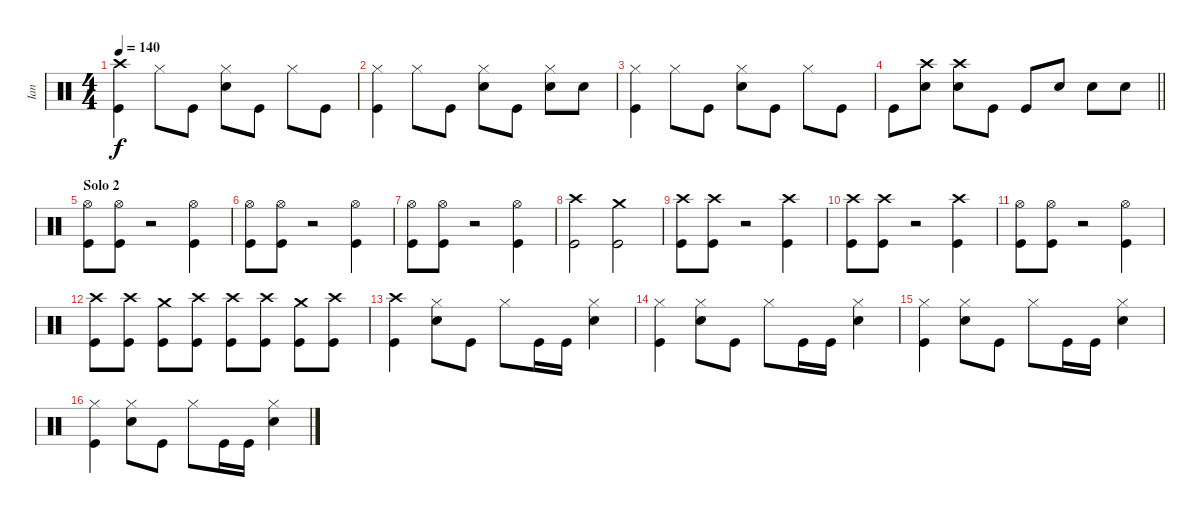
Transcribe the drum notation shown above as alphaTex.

\track ("Ian" "Ian") {instrument percussion}
\staff {score}
\articulation defaults
\ts (4 4)
\tempo 140
\clef neutral
\ks c
("Crash high (hit)" "Kick (hit)").4{dy f} "Hi-Hat (closed)".8 "Kick (hit)".8 ("Hi-Hat (closed)" "Snare (hit) 2").8 "Kick (hit)".8 "Hi-Hat (closed)".8 "Kick (hit)".8 |
("Hi-Hat (closed)" "Kick (hit)").4 "Hi-Hat (closed)".8 "Kick (hit)".8 ("Hi-Hat (closed)" "Snare (hit) 2").8 "Kick (hit)".8 ("Hi-Hat (closed)" "Snare (hit) 2").8 "Snare (hit) 2".8 |
("Hi-Hat (closed)" "Kick (hit)").4 "Hi-Hat (closed)".8 "Kick (hit)".8 ("Hi-Hat (closed)" "Snare (hit) 2").8 "Kick (hit)".8 "Hi-Hat (closed)".8 "Kick (hit)".8 |
\barLineRight lightlight "Kick (hit)".8
("Crash high (hit)" "Snare (hit) 2").8 ("Crash high (hit)" "Snare (hit) 2").8 "Kick (hit)".8 "Kick (hit)".8 "Snare (hit) 2".8 "Snare (hit) 2".8 "Snare (hit) 2".8 |
\section ("" "Solo 2")
("Hi-Hat (open)" "Kick (hit)").8 ("Hi-Hat (open)" "Kick (hit)").8 r.2 ("Hi-Hat (open)" "Kick (hit)").4 |
("Hi-Hat (open)" "Kick (hit)").8 ("Hi-Hat (open)" "Kick (hit)").8 r.2 ("Hi-Hat (open)" "Kick (hit)").4 |
("Hi-Hat (open)" "Kick (hit)").8 ("Hi-Hat (open)" "Kick (hit)").8 r.2 ("Hi-Hat (open)" "Kick (hit)").4 |
("Crash high (hit)" "Kick (hit)").2 ("Crash medium (hit)" "Kick (hit)").2 |
("Crash high (hit)" "Kick (hit)").8 ("Crash high (hit)" "Kick (hit)").8 r.2 ("Crash high (hit)" "Kick (hit)").4 |
("Crash high (hit)" "Kick (hit)").8 ("Crash high (hit)" "Kick (hit)").8 r.2 ("Crash high (hit)" "Kick (hit)").4 |
("Hi-Hat (open)" "Kick (hit)").8 ("Hi-Hat (open)" "Kick (hit)").8 r.2 ("Hi-Hat (open)" "Kick (hit)").4 |
("Crash high (hit)" "Kick (hit)").8 ("Crash high (hit)" "Kick (hit)").8 ("Crash medium (hit)" "Kick (hit)").8 ("Crash high (hit)" "Kick (hit)").8 ("Crash high (hit)" "Kick (hit)").8 ("Crash high (hit)" "Kick (hit)").8 ("Crash medium (hit)" "Kick (hit)").8 ("Crash high (hit)" "Kick (hit)").8 |
("Crash high (hit)" "Kick (hit)").4 ("Hi-Hat (closed)" "Snare (hit) 2").8 "Kick (hit)".8 "Hi-Hat (closed)".8 "Kick (hit)".16 "Kick (hit)".16 ("Hi-Hat (closed)" "Snare (hit) 2").4 |
("Hi-Hat (closed)" "Kick (hit)").4 ("Hi-Hat (closed)" "Snare (hit) 2").8 "Kick (hit)".8 "Hi-Hat (closed)".8 "Kick (hit)".16 "Kick (hit)".16 ("Hi-Hat (closed)" "Snare (hit) 2").4 |
("Hi-Hat (closed)" "Kick (hit)").4 ("Hi-Hat (closed)" "Snare (hit) 2").8 "Kick (hit)".8 "Hi-Hat (closed)".8 "Kick (hit)".16 "Kick (hit)".16 ("Hi-Hat (closed)" "Snare (hit) 2").4 |
("Hi-Hat (closed)" "Kick (hit)").4 ("Hi-Hat (closed)" "Snare (hit) 2").8 "Kick (hit)".8 "Hi-Hat (closed)".8 "Kick (hit)".16 "Kick (hit)".16 ("Hi-Hat (closed)" "Snare (hit) 2").4
